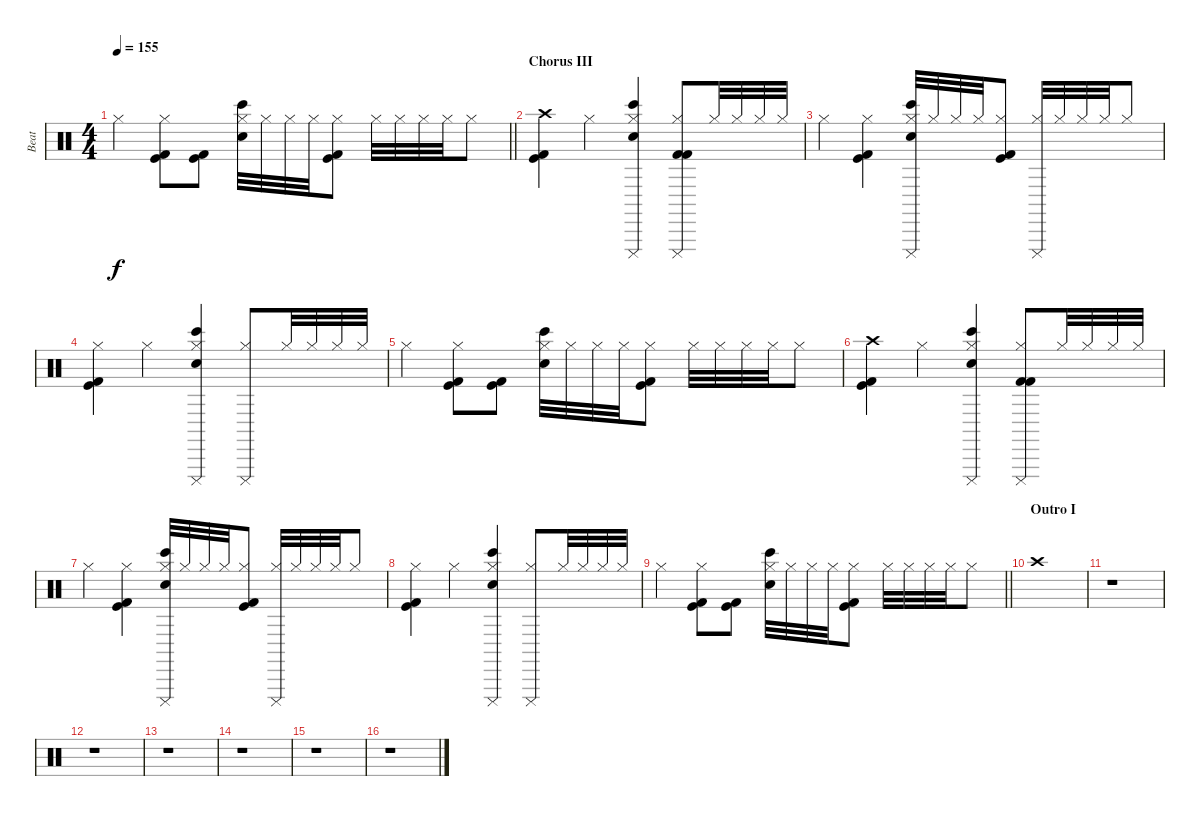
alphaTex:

\track ("Beat" "Beat") {instrument percussion}
\staff {score}
\articulation defaults
\ts (4 4)
\tempo 155
\clef neutral
\barLineRight lightlight
\ks c "Hi-Hat (closed)".4{dy f}
("Hi-Hat (closed)" "Kick (hit)" "Kick (hit) 2").8 ("Kick (hit)" "Kick (hit) 2").8 ("Hi-Hat (closed)" "Hand Clap (hit)" "Bongo High (hit)").32 "Hi-Hat (closed)".32 "Hi-Hat (closed)".32 "Hi-Hat (closed)".32 ("Hi-Hat (closed)" "Kick (hit)" "Kick (hit) 2").8 "Hi-Hat (closed)".32 "Hi-Hat (closed)".32 "Hi-Hat (closed)".32 "Hi-Hat (closed)".32 "Hi-Hat (closed)".8 |
\section ("" "Chorus III")
("Crash high (hit)" "Kick (hit)" "Kick (hit) 2").4 "Hi-Hat (closed)".4 ("Cuica (mute)" "Hi-Hat (closed)" "Hand Clap (hit)" "Bongo High (hit)").4 ("Cuica (mute)" "Hi-Hat (closed)" "Kick (hit) 2" "Kick (hit) 2").8 "Hi-Hat (closed)".32 "Hi-Hat (closed)".32 "Hi-Hat (closed)".32 "Hi-Hat (closed)".32 |
"Hi-Hat (closed)".4 ("Hi-Hat (closed)" "Kick (hit)" "Kick (hit) 2").4 ("Cuica (mute)" "Hi-Hat (closed)" "Hand Clap (hit)" "Bongo High (hit)").32 "Hi-Hat (closed)".32 "Hi-Hat (closed)".32 "Hi-Hat (closed)".32 ("Hi-Hat (closed)" "Kick (hit)" "Kick (hit) 2").8 ("Cuica (mute)" "Hi-Hat (closed)").32 "Hi-Hat (closed)".32 "Hi-Hat (closed)".32 "Hi-Hat (closed)".32 "Hi-Hat (closed)".8 |
("Hi-Hat (closed)" "Kick (hit)" "Kick (hit) 2").4 "Hi-Hat (closed)".4 ("Cuica (mute)" "Hi-Hat (closed)" "Hand Clap (hit)" "Bongo High (hit)").4 ("Cuica (mute)" "Hi-Hat (closed)").8 "Hi-Hat (closed)".32 "Hi-Hat (closed)".32 "Hi-Hat (closed)".32 "Hi-Hat (closed)".32 |
"Hi-Hat (closed)".4 ("Hi-Hat (closed)" "Kick (hit)" "Kick (hit) 2").8 ("Kick (hit)" "Kick (hit) 2").8 ("Hi-Hat (closed)" "Hand Clap (hit)" "Bongo High (hit)").32 "Hi-Hat (closed)".32 "Hi-Hat (closed)".32 "Hi-Hat (closed)".32 ("Hi-Hat (closed)" "Kick (hit)" "Kick (hit) 2").8 "Hi-Hat (closed)".32 "Hi-Hat (closed)".32 "Hi-Hat (closed)".32 "Hi-Hat (closed)".32 "Hi-Hat (closed)".8 |
("Crash high (hit)" "Kick (hit)" "Kick (hit) 2").4 "Hi-Hat (closed)".4 ("Cuica (mute)" "Hi-Hat (closed)" "Hand Clap (hit)" "Bongo High (hit)").4 ("Cuica (mute)" "Hi-Hat (closed)" "Kick (hit) 2" "Kick (hit) 2").8 "Hi-Hat (closed)".32 "Hi-Hat (closed)".32 "Hi-Hat (closed)".32 "Hi-Hat (closed)".32 |
"Hi-Hat (closed)".4 ("Hi-Hat (closed)" "Kick (hit)" "Kick (hit) 2").4 ("Cuica (mute)" "Hi-Hat (closed)" "Hand Clap (hit)" "Bongo High (hit)").32 "Hi-Hat (closed)".32 "Hi-Hat (closed)".32 "Hi-Hat (closed)".32 ("Hi-Hat (closed)" "Kick (hit)" "Kick (hit) 2").8 ("Cuica (mute)" "Hi-Hat (closed)").32 "Hi-Hat (closed)".32 "Hi-Hat (closed)".32 "Hi-Hat (closed)".32 "Hi-Hat (closed)".8 |
("Hi-Hat (closed)" "Kick (hit)" "Kick (hit) 2").4 "Hi-Hat (closed)".4 ("Cuica (mute)" "Hi-Hat (closed)" "Hand Clap (hit)" "Bongo High (hit)").4 ("Cuica (mute)" "Hi-Hat (closed)").8 "Hi-Hat (closed)".32 "Hi-Hat (closed)".32 "Hi-Hat (closed)".32 "Hi-Hat (closed)".32 |
\barLineRight lightlight "Hi-Hat (closed)".4
("Hi-Hat (closed)" "Kick (hit)" "Kick (hit) 2").8 ("Kick (hit)" "Kick (hit) 2").8 ("Hi-Hat (closed)" "Hand Clap (hit)" "Bongo High (hit)").32 "Hi-Hat (closed)".32 "Hi-Hat (closed)".32 "Hi-Hat (closed)".32 ("Hi-Hat (closed)" "Kick (hit)" "Kick (hit) 2").8 "Hi-Hat (closed)".32 "Hi-Hat (closed)".32 "Hi-Hat (closed)".32 "Hi-Hat (closed)".32 "Hi-Hat (closed)".8 |
\section ("" "Outro I")
"Crash high (hit)".1 |
r.1 |
r.1 |
r.1 |
r.1 |
r.1 |
r.1
